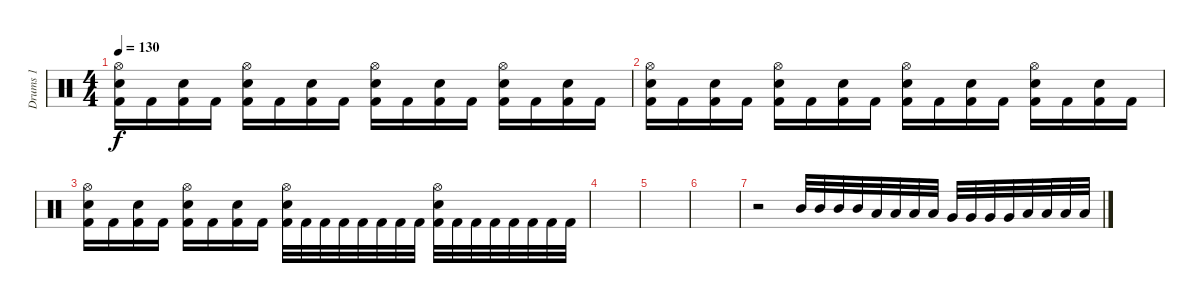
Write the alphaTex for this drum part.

\track ("Drums 1" "Drums 1") {instrument percussion}
\staff {score}
\articulation defaults
\ts (4 4)
\tempo 130
\clef neutral
\ks c
("Hi-Hat (open)" "Snare (hit) 2" "Kick (hit) 2").16{dy f} "Kick (hit) 2".16 ("Snare (hit) 2" "Kick (hit) 2").16 "Kick (hit) 2".16 ("Hi-Hat (open)" "Snare (hit) 2" "Kick (hit) 2").16 "Kick (hit) 2".16 ("Snare (hit) 2" "Kick (hit) 2").16 "Kick (hit) 2".16 ("Hi-Hat (open)" "Snare (hit) 2" "Kick (hit) 2").16 "Kick (hit) 2".16 ("Snare (hit) 2" "Kick (hit) 2").16 "Kick (hit) 2".16 ("Hi-Hat (open)" "Snare (hit) 2" "Kick (hit) 2").16 "Kick (hit) 2".16 ("Snare (hit) 2" "Kick (hit) 2").16 "Kick (hit) 2".16 |
("Hi-Hat (open)" "Snare (hit) 2" "Kick (hit) 2").16 "Kick (hit) 2".16 ("Snare (hit) 2" "Kick (hit) 2").16 "Kick (hit) 2".16 ("Hi-Hat (open)" "Snare (hit) 2" "Kick (hit) 2").16 "Kick (hit) 2".16 ("Snare (hit) 2" "Kick (hit) 2").16 "Kick (hit) 2".16 ("Hi-Hat (open)" "Snare (hit) 2" "Kick (hit) 2").16 "Kick (hit) 2".16 ("Snare (hit) 2" "Kick (hit) 2").16 "Kick (hit) 2".16 ("Hi-Hat (open)" "Snare (hit) 2" "Kick (hit) 2").16 "Kick (hit) 2".16 ("Snare (hit) 2" "Kick (hit) 2").16 "Kick (hit) 2".16 |
("Hi-Hat (open)" "Snare (hit) 2" "Kick (hit) 2").16 "Kick (hit) 2".16 ("Snare (hit) 2" "Kick (hit) 2").16 "Kick (hit) 2".16 ("Hi-Hat (open)" "Snare (hit) 2" "Kick (hit) 2").16 "Kick (hit) 2".16 ("Snare (hit) 2" "Kick (hit) 2").16 "Kick (hit) 2".16 ("Hi-Hat (open)" "Snare (hit) 2" "Kick (hit) 2").32 "Kick (hit) 2".32 "Kick (hit) 2".32 "Kick (hit) 2".32 "Kick (hit) 2".32 "Kick (hit) 2".32 "Kick (hit) 2".32 "Kick (hit) 2".32 ("Hi-Hat (open)" "Snare (hit) 2" "Kick (hit) 2").32 "Kick (hit) 2".32 "Kick (hit) 2".32 "Kick (hit) 2".32 "Kick (hit) 2".32 "Kick (hit) 2".32 "Kick (hit) 2".32 "Kick (hit) 2".32 |
|
|
|
r.2 "Mid Tom (hit)".32 "Mid Tom (hit)".32 "Mid Tom (hit)".32 "Mid Tom (hit)".32 "Low Tom (hit)".32 "Low Tom (hit)".32 "Low Tom (hit)".32 "Low Tom (hit)".32 "Very Low Tom (hit)".32 "Very Low Tom (hit)".32 "Very Low Tom (hit)".32 "Very Low Tom (hit)".32 "Low Floor Tom (hit)".32 "Low Floor Tom (hit)".32 "Low Floor Tom (hit)".32 "Low Floor Tom (hit)".32
